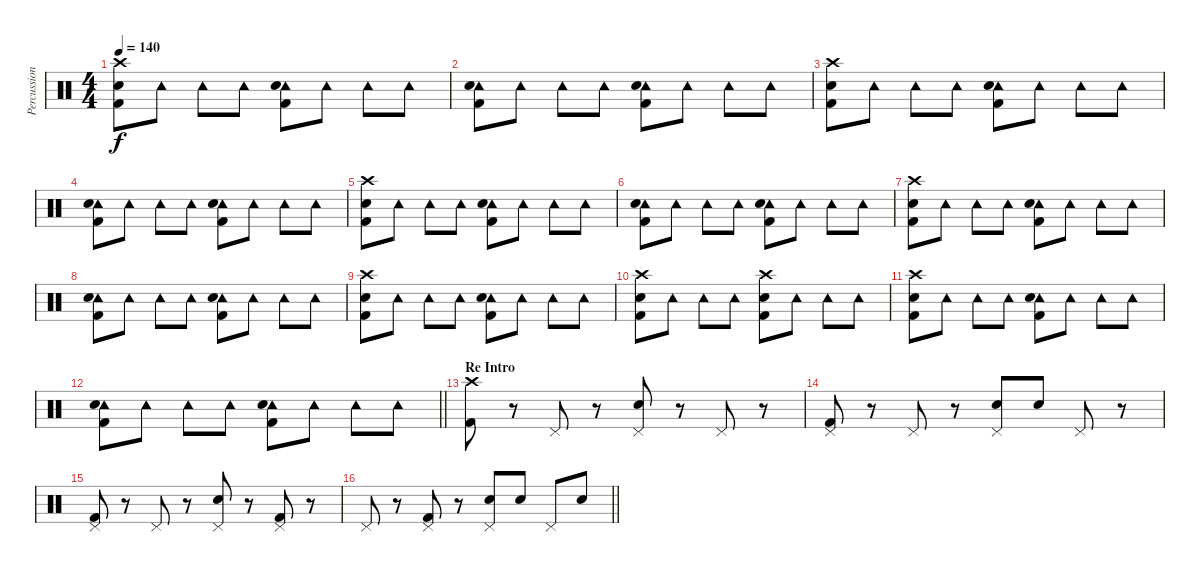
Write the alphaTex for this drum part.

\track ("Percussion" "Percussion") {instrument percussion}
\staff {score}
\articulation defaults
\ts (4 4)
\tempo 140
\clef neutral
\ks c
("Crash high (hit)" "Snare (hit) 2" "Kick (hit) 2").8{dy f} "Tambourine (hit)".8 "Tambourine (hit)".8 "Tambourine (hit)".8 ("Tambourine (hit)" "Snare (hit) 2" "Kick (hit) 2").8 "Tambourine (hit)".8 "Tambourine (hit)".8 "Tambourine (hit)".8 |
("Tambourine (hit)" "Snare (hit) 2" "Kick (hit) 2").8 "Tambourine (hit)".8 "Tambourine (hit)".8 "Tambourine (hit)".8 ("Tambourine (hit)" "Snare (hit) 2" "Kick (hit) 2").8 "Tambourine (hit)".8 "Tambourine (hit)".8 "Tambourine (hit)".8 |
("Crash high (hit)" "Snare (hit) 2" "Kick (hit) 2").8 "Tambourine (hit)".8 "Tambourine (hit)".8 "Tambourine (hit)".8 ("Tambourine (hit)" "Snare (hit) 2" "Kick (hit) 2").8 "Tambourine (hit)".8 "Tambourine (hit)".8 "Tambourine (hit)".8 |
("Tambourine (hit)" "Snare (hit) 2" "Kick (hit) 2").8 "Tambourine (hit)".8 "Tambourine (hit)".8 "Tambourine (hit)".8 ("Tambourine (hit)" "Snare (hit) 2" "Kick (hit) 2").8 "Tambourine (hit)".8 "Tambourine (hit)".8 "Tambourine (hit)".8 |
("Crash high (hit)" "Snare (hit) 2" "Kick (hit) 2").8 "Tambourine (hit)".8 "Tambourine (hit)".8 "Tambourine (hit)".8 ("Tambourine (hit)" "Snare (hit) 2" "Kick (hit) 2").8 "Tambourine (hit)".8 "Tambourine (hit)".8 "Tambourine (hit)".8 |
("Tambourine (hit)" "Snare (hit) 2" "Kick (hit) 2").8 "Tambourine (hit)".8 "Tambourine (hit)".8 "Tambourine (hit)".8 ("Tambourine (hit)" "Snare (hit) 2" "Kick (hit) 2").8 "Tambourine (hit)".8 "Tambourine (hit)".8 "Tambourine (hit)".8 |
("Crash high (hit)" "Snare (hit) 2" "Kick (hit) 2").8 "Tambourine (hit)".8 "Tambourine (hit)".8 "Tambourine (hit)".8 ("Tambourine (hit)" "Snare (hit) 2" "Kick (hit) 2").8 "Tambourine (hit)".8 "Tambourine (hit)".8 "Tambourine (hit)".8 |
("Tambourine (hit)" "Snare (hit) 2" "Kick (hit) 2").8 "Tambourine (hit)".8 "Tambourine (hit)".8 "Tambourine (hit)".8 ("Tambourine (hit)" "Snare (hit) 2" "Kick (hit) 2").8 "Tambourine (hit)".8 "Tambourine (hit)".8 "Tambourine (hit)".8 |
("Crash high (hit)" "Snare (hit) 2" "Kick (hit) 2").8 "Tambourine (hit)".8 "Tambourine (hit)".8 "Tambourine (hit)".8 ("Tambourine (hit)" "Snare (hit) 2" "Kick (hit) 2").8 "Tambourine (hit)".8 "Tambourine (hit)".8 "Tambourine (hit)".8 |
("Crash high (hit)" "Snare (hit) 2" "Kick (hit) 2").8 "Tambourine (hit)".8 "Tambourine (hit)".8 "Tambourine (hit)".8 ("Crash high (hit)" "Snare (hit) 2" "Kick (hit) 2").8 "Tambourine (hit)".8 "Tambourine (hit)".8 "Tambourine (hit)".8 |
("Crash high (hit)" "Snare (hit) 2" "Kick (hit) 2").8 "Tambourine (hit)".8 "Tambourine (hit)".8 "Tambourine (hit)".8 ("Tambourine (hit)" "Snare (hit) 2" "Kick (hit) 2").8 "Tambourine (hit)".8 "Tambourine (hit)".8 "Tambourine (hit)".8 |
\barLineRight lightlight
("Tambourine (hit)" "Snare (hit) 2" "Kick (hit) 2").8 "Tambourine (hit)".8 "Tambourine (hit)".8 "Tambourine (hit)".8 ("Tambourine (hit)" "Snare (hit) 2" "Kick (hit) 2").8 "Tambourine (hit)".8 "Tambourine (hit)".8 "Tambourine (hit)".8 |
\section ("" "Re Intro")
("Crash high (hit)" "Kick (hit) 2").8 r.8 "Pedal Hi-Hat (hit)".8 r.8 ("Pedal Hi-Hat (hit)" "Snare (hit) 2").8 r.8 "Pedal Hi-Hat (hit)".8 r.8 |
("Pedal Hi-Hat (hit)" "Kick (hit) 2").8 r.8 "Pedal Hi-Hat (hit)".8 r.8 ("Pedal Hi-Hat (hit)" "Snare (hit) 2").8 "Snare (hit) 2".8 "Pedal Hi-Hat (hit)".8 r.8 |
("Pedal Hi-Hat (hit)" "Kick (hit) 2").8 r.8 "Pedal Hi-Hat (hit)".8 r.8 ("Pedal Hi-Hat (hit)" "Snare (hit) 2").8 r.8 ("Pedal Hi-Hat (hit)" "Kick (hit) 2").8 r.8 |
\barLineRight lightlight "Pedal Hi-Hat (hit)".8
r.8 ("Pedal Hi-Hat (hit)" "Kick (hit) 2").8 r.8 ("Pedal Hi-Hat (hit)" "Snare (hit) 2").8 "Snare (hit) 2".8 "Pedal Hi-Hat (hit)".8 "Snare (hit) 2".8
